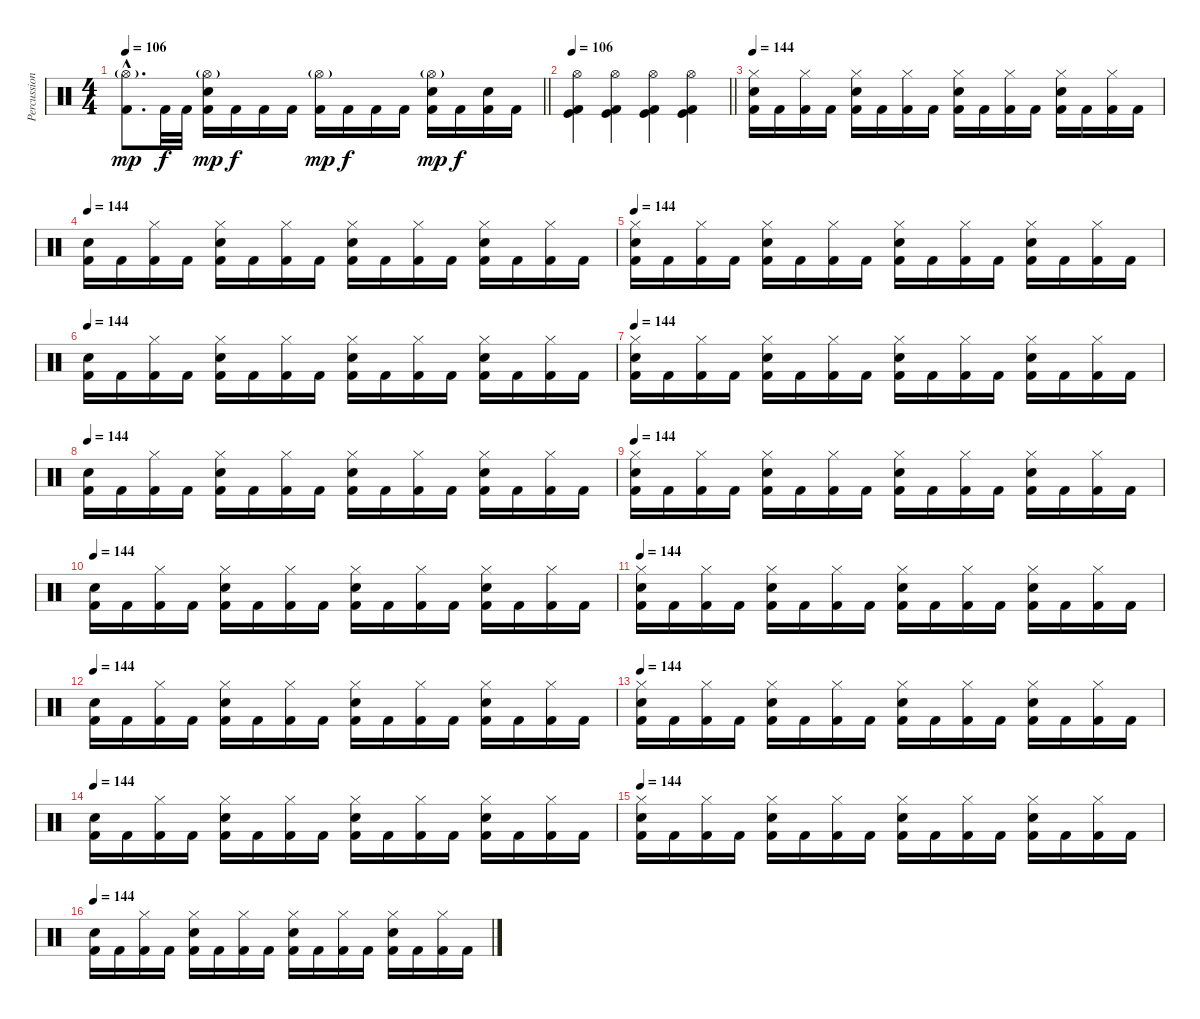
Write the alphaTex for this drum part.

\track ("Percussions" "Percussion") {instrument percussion}
\staff {score}
\articulation defaults
\ts (4 4)
\tempo 106
\clef neutral
\barLineRight lightlight
\ks c
("Hi-Hat (open)"{g hac} "Kick (hit) 2"{hac}).8{d dy mp} "Kick (hit) 2".32{dy f} "Kick (hit) 2".32 ("Hi-Hat (open)"{g} "Electric Snare (hit)" "Kick (hit) 2").16{dy mp} "Kick (hit) 2".16{dy f} "Kick (hit) 2".16 "Kick (hit) 2".16 ("Hi-Hat (open)"{g} "Kick (hit) 2").16{dy mp} "Kick (hit) 2".16{dy f} "Kick (hit) 2".16 "Kick (hit) 2".16 ("Hi-Hat (open)"{g} "Electric Snare (hit)" "Kick (hit) 2").16{dy mp} "Kick (hit) 2".16{dy f} ("Electric Snare (hit)" "Kick (hit) 2").16 "Kick (hit) 2".16 |
\tempo 106
\barLineRight lightlight
("Hi-Hat (open)" "Kick (hit)" "Kick (hit) 2").4 ("Hi-Hat (open)" "Kick (hit)" "Kick (hit) 2").4 ("Hi-Hat (open)" "Kick (hit)" "Kick (hit) 2").4 ("Hi-Hat (open)" "Kick (hit)" "Kick (hit) 2").4 |
\tempo 144
("Hi-Hat (closed)" "Electric Snare (hit)" "Kick (hit) 2").16 "Kick (hit) 2".16 ("Hi-Hat (closed)" "Kick (hit) 2").16 "Kick (hit) 2".16 ("Hi-Hat (closed)" "Electric Snare (hit)" "Kick (hit) 2").16 "Kick (hit) 2".16 ("Hi-Hat (closed)" "Kick (hit) 2").16 "Kick (hit) 2".16 ("Hi-Hat (closed)" "Electric Snare (hit)" "Kick (hit) 2").16 "Kick (hit) 2".16 ("Hi-Hat (closed)" "Kick (hit) 2").16 "Kick (hit) 2".16 ("Hi-Hat (closed)" "Electric Snare (hit)" "Kick (hit) 2").16 "Kick (hit) 2".16 ("Hi-Hat (closed)" "Kick (hit) 2").16 "Kick (hit) 2".16 |
\tempo 144
("Electric Snare (hit)" "Kick (hit) 2").16 "Kick (hit) 2".16 ("Hi-Hat (closed)" "Kick (hit) 2").16 "Kick (hit) 2".16 ("Hi-Hat (closed)" "Electric Snare (hit)" "Kick (hit) 2").16 "Kick (hit) 2".16 ("Hi-Hat (closed)" "Kick (hit) 2").16 "Kick (hit) 2".16 ("Hi-Hat (closed)" "Electric Snare (hit)" "Kick (hit) 2").16 "Kick (hit) 2".16 ("Hi-Hat (closed)" "Kick (hit) 2").16 "Kick (hit) 2".16 ("Hi-Hat (closed)" "Electric Snare (hit)" "Kick (hit) 2").16 "Kick (hit) 2".16 ("Hi-Hat (closed)" "Kick (hit) 2").16 "Kick (hit) 2".16 |
\tempo 144
("Hi-Hat (closed)" "Electric Snare (hit)" "Kick (hit) 2").16 "Kick (hit) 2".16 ("Hi-Hat (closed)" "Kick (hit) 2").16 "Kick (hit) 2".16 ("Hi-Hat (closed)" "Electric Snare (hit)" "Kick (hit) 2").16 "Kick (hit) 2".16 ("Hi-Hat (closed)" "Kick (hit) 2").16 "Kick (hit) 2".16 ("Hi-Hat (closed)" "Electric Snare (hit)" "Kick (hit) 2").16 "Kick (hit) 2".16 ("Hi-Hat (closed)" "Kick (hit) 2").16 "Kick (hit) 2".16 ("Hi-Hat (closed)" "Electric Snare (hit)" "Kick (hit) 2").16 "Kick (hit) 2".16 ("Hi-Hat (closed)" "Kick (hit) 2").16 "Kick (hit) 2".16 |
\tempo 144
("Electric Snare (hit)" "Kick (hit) 2").16 "Kick (hit) 2".16 ("Hi-Hat (closed)" "Kick (hit) 2").16 "Kick (hit) 2".16 ("Hi-Hat (closed)" "Electric Snare (hit)" "Kick (hit) 2").16 "Kick (hit) 2".16 ("Hi-Hat (closed)" "Kick (hit) 2").16 "Kick (hit) 2".16 ("Hi-Hat (closed)" "Electric Snare (hit)" "Kick (hit) 2").16 "Kick (hit) 2".16 ("Hi-Hat (closed)" "Kick (hit) 2").16 "Kick (hit) 2".16 ("Hi-Hat (closed)" "Electric Snare (hit)" "Kick (hit) 2").16 "Kick (hit) 2".16 ("Hi-Hat (closed)" "Kick (hit) 2").16 "Kick (hit) 2".16 |
\tempo 144
("Hi-Hat (closed)" "Electric Snare (hit)" "Kick (hit) 2").16 "Kick (hit) 2".16 ("Hi-Hat (closed)" "Kick (hit) 2").16 "Kick (hit) 2".16 ("Hi-Hat (closed)" "Electric Snare (hit)" "Kick (hit) 2").16 "Kick (hit) 2".16 ("Hi-Hat (closed)" "Kick (hit) 2").16 "Kick (hit) 2".16 ("Hi-Hat (closed)" "Electric Snare (hit)" "Kick (hit) 2").16 "Kick (hit) 2".16 ("Hi-Hat (closed)" "Kick (hit) 2").16 "Kick (hit) 2".16 ("Hi-Hat (closed)" "Electric Snare (hit)" "Kick (hit) 2").16 "Kick (hit) 2".16 ("Hi-Hat (closed)" "Kick (hit) 2").16 "Kick (hit) 2".16 |
\tempo 144
("Electric Snare (hit)" "Kick (hit) 2").16 "Kick (hit) 2".16 ("Hi-Hat (closed)" "Kick (hit) 2").16 "Kick (hit) 2".16 ("Hi-Hat (closed)" "Electric Snare (hit)" "Kick (hit) 2").16 "Kick (hit) 2".16 ("Hi-Hat (closed)" "Kick (hit) 2").16 "Kick (hit) 2".16 ("Hi-Hat (closed)" "Electric Snare (hit)" "Kick (hit) 2").16 "Kick (hit) 2".16 ("Hi-Hat (closed)" "Kick (hit) 2").16 "Kick (hit) 2".16 ("Hi-Hat (closed)" "Electric Snare (hit)" "Kick (hit) 2").16 "Kick (hit) 2".16 ("Hi-Hat (closed)" "Kick (hit) 2").16 "Kick (hit) 2".16 |
\tempo 144
("Hi-Hat (closed)" "Electric Snare (hit)" "Kick (hit) 2").16 "Kick (hit) 2".16 ("Hi-Hat (closed)" "Kick (hit) 2").16 "Kick (hit) 2".16 ("Hi-Hat (closed)" "Electric Snare (hit)" "Kick (hit) 2").16 "Kick (hit) 2".16 ("Hi-Hat (closed)" "Kick (hit) 2").16 "Kick (hit) 2".16 ("Hi-Hat (closed)" "Electric Snare (hit)" "Kick (hit) 2").16 "Kick (hit) 2".16 ("Hi-Hat (closed)" "Kick (hit) 2").16 "Kick (hit) 2".16 ("Hi-Hat (closed)" "Electric Snare (hit)" "Kick (hit) 2").16 "Kick (hit) 2".16 ("Hi-Hat (closed)" "Kick (hit) 2").16 "Kick (hit) 2".16 |
\tempo 144
("Electric Snare (hit)" "Kick (hit) 2").16 "Kick (hit) 2".16 ("Hi-Hat (closed)" "Kick (hit) 2").16 "Kick (hit) 2".16 ("Hi-Hat (closed)" "Electric Snare (hit)" "Kick (hit) 2").16 "Kick (hit) 2".16 ("Hi-Hat (closed)" "Kick (hit) 2").16 "Kick (hit) 2".16 ("Hi-Hat (closed)" "Electric Snare (hit)" "Kick (hit) 2").16 "Kick (hit) 2".16 ("Hi-Hat (closed)" "Kick (hit) 2").16 "Kick (hit) 2".16 ("Hi-Hat (closed)" "Electric Snare (hit)" "Kick (hit) 2").16 "Kick (hit) 2".16 ("Hi-Hat (closed)" "Kick (hit) 2").16 "Kick (hit) 2".16 |
\tempo 144
("Hi-Hat (closed)" "Electric Snare (hit)" "Kick (hit) 2").16 "Kick (hit) 2".16 ("Hi-Hat (closed)" "Kick (hit) 2").16 "Kick (hit) 2".16 ("Hi-Hat (closed)" "Electric Snare (hit)" "Kick (hit) 2").16 "Kick (hit) 2".16 ("Hi-Hat (closed)" "Kick (hit) 2").16 "Kick (hit) 2".16 ("Hi-Hat (closed)" "Electric Snare (hit)" "Kick (hit) 2").16 "Kick (hit) 2".16 ("Hi-Hat (closed)" "Kick (hit) 2").16 "Kick (hit) 2".16 ("Hi-Hat (closed)" "Electric Snare (hit)" "Kick (hit) 2").16 "Kick (hit) 2".16 ("Hi-Hat (closed)" "Kick (hit) 2").16 "Kick (hit) 2".16 |
\tempo 144
("Electric Snare (hit)" "Kick (hit) 2").16 "Kick (hit) 2".16 ("Hi-Hat (closed)" "Kick (hit) 2").16 "Kick (hit) 2".16 ("Hi-Hat (closed)" "Electric Snare (hit)" "Kick (hit) 2").16 "Kick (hit) 2".16 ("Hi-Hat (closed)" "Kick (hit) 2").16 "Kick (hit) 2".16 ("Hi-Hat (closed)" "Electric Snare (hit)" "Kick (hit) 2").16 "Kick (hit) 2".16 ("Hi-Hat (closed)" "Kick (hit) 2").16 "Kick (hit) 2".16 ("Hi-Hat (closed)" "Electric Snare (hit)" "Kick (hit) 2").16 "Kick (hit) 2".16 ("Hi-Hat (closed)" "Kick (hit) 2").16 "Kick (hit) 2".16 |
\tempo 144
("Hi-Hat (closed)" "Electric Snare (hit)" "Kick (hit) 2").16 "Kick (hit) 2".16 ("Hi-Hat (closed)" "Kick (hit) 2").16 "Kick (hit) 2".16 ("Hi-Hat (closed)" "Electric Snare (hit)" "Kick (hit) 2").16 "Kick (hit) 2".16 ("Hi-Hat (closed)" "Kick (hit) 2").16 "Kick (hit) 2".16 ("Hi-Hat (closed)" "Electric Snare (hit)" "Kick (hit) 2").16 "Kick (hit) 2".16 ("Hi-Hat (closed)" "Kick (hit) 2").16 "Kick (hit) 2".16 ("Hi-Hat (closed)" "Electric Snare (hit)" "Kick (hit) 2").16 "Kick (hit) 2".16 ("Hi-Hat (closed)" "Kick (hit) 2").16 "Kick (hit) 2".16 |
\tempo 144
("Electric Snare (hit)" "Kick (hit) 2").16 "Kick (hit) 2".16 ("Hi-Hat (closed)" "Kick (hit) 2").16 "Kick (hit) 2".16 ("Hi-Hat (closed)" "Electric Snare (hit)" "Kick (hit) 2").16 "Kick (hit) 2".16 ("Hi-Hat (closed)" "Kick (hit) 2").16 "Kick (hit) 2".16 ("Hi-Hat (closed)" "Electric Snare (hit)" "Kick (hit) 2").16 "Kick (hit) 2".16 ("Hi-Hat (closed)" "Kick (hit) 2").16 "Kick (hit) 2".16 ("Hi-Hat (closed)" "Electric Snare (hit)" "Kick (hit) 2").16 "Kick (hit) 2".16 ("Hi-Hat (closed)" "Kick (hit) 2").16 "Kick (hit) 2".16 |
\tempo 144
("Hi-Hat (closed)" "Electric Snare (hit)" "Kick (hit) 2").16 "Kick (hit) 2".16 ("Hi-Hat (closed)" "Kick (hit) 2").16 "Kick (hit) 2".16 ("Hi-Hat (closed)" "Electric Snare (hit)" "Kick (hit) 2").16 "Kick (hit) 2".16 ("Hi-Hat (closed)" "Kick (hit) 2").16 "Kick (hit) 2".16 ("Hi-Hat (closed)" "Electric Snare (hit)" "Kick (hit) 2").16 "Kick (hit) 2".16 ("Hi-Hat (closed)" "Kick (hit) 2").16 "Kick (hit) 2".16 ("Hi-Hat (closed)" "Electric Snare (hit)" "Kick (hit) 2").16 "Kick (hit) 2".16 ("Hi-Hat (closed)" "Kick (hit) 2").16 "Kick (hit) 2".16 |
\tempo 144
("Electric Snare (hit)" "Kick (hit) 2").16 "Kick (hit) 2".16 ("Hi-Hat (closed)" "Kick (hit) 2").16 "Kick (hit) 2".16 ("Hi-Hat (closed)" "Electric Snare (hit)" "Kick (hit) 2").16 "Kick (hit) 2".16 ("Hi-Hat (closed)" "Kick (hit) 2").16 "Kick (hit) 2".16 ("Hi-Hat (closed)" "Electric Snare (hit)" "Kick (hit) 2").16 "Kick (hit) 2".16 ("Hi-Hat (closed)" "Kick (hit) 2").16 "Kick (hit) 2".16 ("Hi-Hat (closed)" "Electric Snare (hit)" "Kick (hit) 2").16 "Kick (hit) 2".16 ("Hi-Hat (closed)" "Kick (hit) 2").16 "Kick (hit) 2".16
